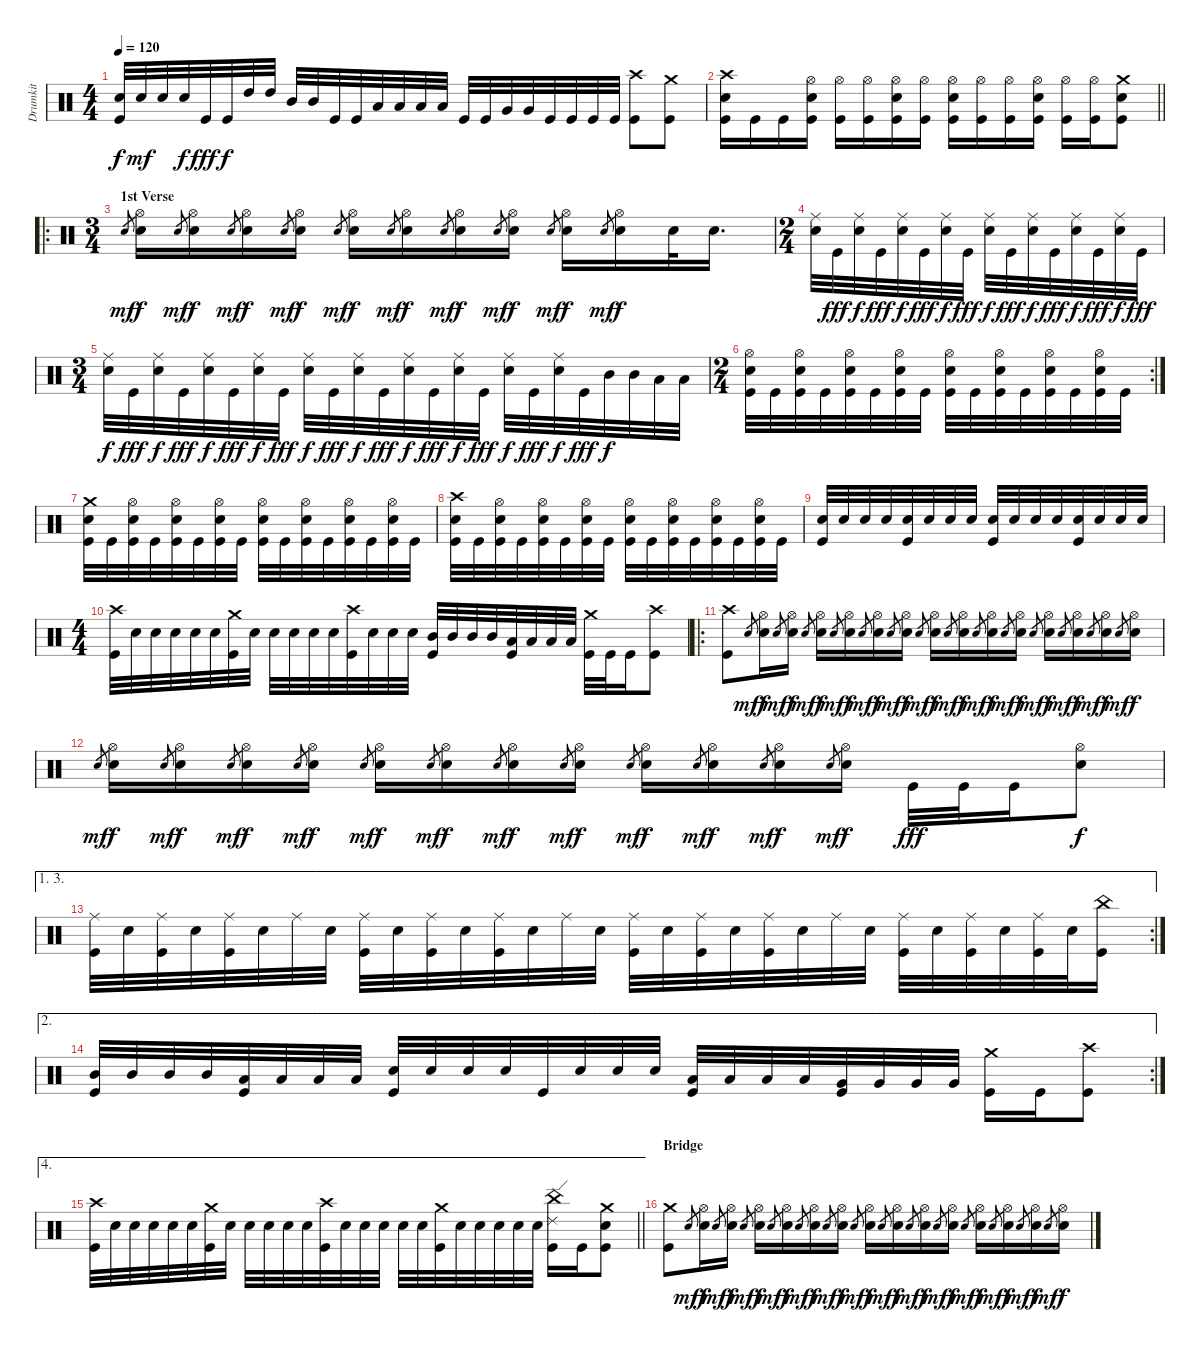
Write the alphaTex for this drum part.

\track ("Drumkit" "Drumkit") {instrument percussion}
\staff {score}
\articulation defaults
\ts (4 4)
\tempo 120
\clef neutral
\ks c
("Snare (hit) 2" "Kick (hit)").32{dy f} "Snare (hit) 2".32{dy mf} "Snare (hit) 2".32 "Snare (hit) 2".32{dy f} "Kick (hit)".32{dy fff} "Kick (hit)".32{dy f} "High Tom (hit)".32 "High Tom (hit)".32 "Mid Tom (hit)".32 "Mid Tom (hit)".32 "Kick (hit)".32 "Kick (hit)".32 "Low Tom (hit)".32 "Low Tom (hit)".32 "Low Tom (hit)".32 "Low Tom (hit)".32 "Kick (hit)".32 "Kick (hit)".32 "Very Low Tom (hit)".32 "Very Low Tom (hit)".32 "Kick (hit)".32 "Kick (hit)".32 "Kick (hit)".32 "Kick (hit)".32 ("Crash high (hit)" "Kick (hit)").8 ("Crash medium (hit)" "Kick (hit)").8 |
\barLineRight lightlight
("Crash high (hit)" "Snare (hit) 2" "Kick (hit)").16 "Kick (hit)".16 "Kick (hit)".16 ("Hi-Hat (open)" "Snare (hit) 2" "Kick (hit)").16 ("Hi-Hat (open)" "Kick (hit)").16 ("Hi-Hat (open)" "Kick (hit)").16 ("Hi-Hat (open)" "Snare (hit) 2" "Kick (hit)").16 ("Hi-Hat (open)" "Kick (hit)").16 ("Hi-Hat (open)" "Snare (hit) 2" "Kick (hit)").16 ("Hi-Hat (open)" "Kick (hit)").16 ("Hi-Hat (open)" "Kick (hit)").16 ("Hi-Hat (open)" "Snare (hit) 2" "Kick (hit)").16 ("Hi-Hat (open)" "Kick (hit)").16 ("Hi-Hat (open)" "Kick (hit)").16 ("Crash medium (hit)" "Snare (hit) 2" "Kick (hit)").8 |
\ro
\ts (3 4)
\section ("" "1st Verse")
"Snare (hit)".8{gr dy mf} ("Hi-Hat (open)" "Snare (hit) 2").16{dy f} "Snare (hit)".8{gr dy mf} ("Hi-Hat (open)" "Snare (hit) 2").16{dy f} "Snare (hit)".8{gr dy mf} ("Hi-Hat (open)" "Snare (hit) 2").16{dy f} "Snare (hit)".8{gr dy mf} ("Hi-Hat (open)" "Snare (hit) 2").16{dy f} "Snare (hit)".8{gr dy mf} ("Hi-Hat (open)" "Snare (hit) 2").16{dy f} "Snare (hit)".8{gr dy mf} ("Hi-Hat (open)" "Snare (hit) 2").16{dy f} "Snare (hit)".8{gr dy mf} ("Hi-Hat (open)" "Snare (hit) 2").16{dy f} "Snare (hit)".8{gr dy mf} ("Hi-Hat (open)" "Snare (hit) 2").16{dy f} "Snare (hit)".8{gr dy mf} ("Hi-Hat (open)" "Snare (hit) 2").16{dy f} "Snare (hit)".8{gr dy mf} ("Hi-Hat (open)" "Snare (hit) 2").16{dy f} "Snare (hit) 2".32 "Snare (hit) 2".16{d} |
\ts (2 4)
("Ride (middle)" "Snare (hit) 2").32 "Kick (hit)".32{dy fff} ("Ride (middle)" "Snare (hit) 2").32{dy f} "Kick (hit)".32{dy fff} ("Ride (middle)" "Snare (hit) 2").32{dy f} "Kick (hit)".32{dy fff} ("Ride (middle)" "Snare (hit) 2").32{dy f} "Kick (hit)".32{dy fff} ("Ride (middle)" "Snare (hit) 2").32{dy f} "Kick (hit)".32{dy fff} ("Ride (middle)" "Snare (hit) 2").32{dy f} "Kick (hit)".32{dy fff} ("Ride (middle)" "Snare (hit) 2").32{dy f} "Kick (hit)".32{dy fff} ("Ride (middle)" "Snare (hit) 2").32{dy f} "Kick (hit)".32{dy fff} |
\ts (3 4)
("Ride (middle)" "Snare (hit) 2").32{dy f} "Kick (hit)".32{dy fff} ("Ride (middle)" "Snare (hit) 2").32{dy f} "Kick (hit)".32{dy fff} ("Ride (middle)" "Snare (hit) 2").32{dy f} "Kick (hit)".32{dy fff} ("Ride (middle)" "Snare (hit) 2").32{dy f} "Kick (hit)".32{dy fff} ("Ride (middle)" "Snare (hit) 2").32{dy f} "Kick (hit)".32{dy fff} ("Ride (middle)" "Snare (hit) 2").32{dy f} "Kick (hit)".32{dy fff} ("Ride (middle)" "Snare (hit) 2").32{dy f} "Kick (hit)".32{dy fff} ("Ride (middle)" "Snare (hit) 2").32{dy f} "Kick (hit)".32{dy fff} ("Ride (middle)" "Snare (hit) 2").32{dy f} "Kick (hit)".32{dy fff} ("Ride (middle)" "Snare (hit) 2").32{dy f} "Kick (hit)".32{dy fff} "Mid Tom (hit)".32{dy f} "Mid Tom (hit)".32 "Low Tom (hit)".32 "Low Tom (hit)".32 |
\rc 2
\ts (2 4)
("Hi-Hat (open)" "Snare (hit) 2" "Kick (hit)").32 "Kick (hit)".32 ("Hi-Hat (open)" "Snare (hit) 2" "Kick (hit)").32 "Kick (hit)".32 ("Hi-Hat (open)" "Snare (hit) 2" "Kick (hit)").32 "Kick (hit)".32 ("Hi-Hat (open)" "Snare (hit) 2" "Kick (hit)").32 "Kick (hit)".32 ("Hi-Hat (open)" "Snare (hit) 2" "Kick (hit)").32 "Kick (hit)".32 ("Hi-Hat (open)" "Snare (hit) 2" "Kick (hit)").32 "Kick (hit)".32 ("Hi-Hat (open)" "Snare (hit) 2" "Kick (hit)").32 "Kick (hit)".32 ("Hi-Hat (open)" "Snare (hit) 2" "Kick (hit)").32 "Kick (hit)".32 |
("Crash medium (hit)" "Snare (hit) 2" "Kick (hit)").32 "Kick (hit)".32 ("Hi-Hat (open)" "Snare (hit) 2" "Kick (hit)").32 "Kick (hit)".32 ("Hi-Hat (open)" "Snare (hit) 2" "Kick (hit)").32 "Kick (hit)".32 ("Hi-Hat (open)" "Snare (hit) 2" "Kick (hit)").32 "Kick (hit)".32 ("Hi-Hat (open)" "Snare (hit) 2" "Kick (hit)").32 "Kick (hit)".32 ("Hi-Hat (open)" "Snare (hit) 2" "Kick (hit)").32 "Kick (hit)".32 ("Hi-Hat (open)" "Snare (hit) 2" "Kick (hit)").32 "Kick (hit)".32 ("Hi-Hat (open)" "Snare (hit) 2" "Kick (hit)").32 "Kick (hit)".32 |
("Crash high (hit)" "Snare (hit) 2" "Kick (hit)").32 "Kick (hit)".32 ("Hi-Hat (open)" "Snare (hit) 2" "Kick (hit)").32 "Kick (hit)".32 ("Hi-Hat (open)" "Snare (hit) 2" "Kick (hit)").32 "Kick (hit)".32 ("Hi-Hat (open)" "Snare (hit) 2" "Kick (hit)").32 "Kick (hit)".32 ("Hi-Hat (open)" "Snare (hit) 2" "Kick (hit)").32 "Kick (hit)".32 ("Hi-Hat (open)" "Snare (hit) 2" "Kick (hit)").32 "Kick (hit)".32 ("Hi-Hat (open)" "Snare (hit) 2" "Kick (hit)").32 "Kick (hit)".32 ("Hi-Hat (open)" "Snare (hit) 2" "Kick (hit)").32 "Kick (hit)".32 |
("Snare (hit) 2" "Kick (hit)").32 "Snare (hit) 2".32 "Snare (hit) 2".32 "Snare (hit) 2".32 ("Snare (hit) 2" "Kick (hit)").32 "Snare (hit) 2".32 "Snare (hit) 2".32 "Snare (hit) 2".32 ("Snare (hit) 2" "Kick (hit)").32 "Snare (hit) 2".32 "Snare (hit) 2".32 "Snare (hit) 2".32 ("Snare (hit) 2" "Kick (hit)").32 "Snare (hit) 2".32 "Snare (hit) 2".32 "Snare (hit) 2".32 |
\ts (4 4)
("Crash high (hit)" "Kick (hit)").32 "Snare (hit) 2".32 "Snare (hit) 2".32 "Snare (hit) 2".32 "Snare (hit) 2".32 "Snare (hit) 2".32 ("Crash medium (hit)" "Kick (hit)").32 "Snare (hit) 2".32 "Snare (hit) 2".32 "Snare (hit) 2".32 "Snare (hit) 2".32 "Snare (hit) 2".32 ("Crash high (hit)" "Kick (hit)").32 "Snare (hit) 2".32 "Snare (hit) 2".32 "Snare (hit) 2".32 ("Mid Tom (hit)" "Kick (hit)").32 "Mid Tom (hit)".32 "Mid Tom (hit)".32 "Mid Tom (hit)".32 ("Low Tom (hit)" "Kick (hit)").32 "Low Tom (hit)".32 "Low Tom (hit)".32 "Low Tom (hit)".32 ("Crash medium (hit)" "Kick (hit)").32 "Kick (hit)".32 "Kick (hit)".16 ("Crash high (hit)" "Kick (hit)").8 |
\ro
("Crash high (hit)" "Kick (hit)").8 "Snare (hit)".8{gr dy mf} ("Hi-Hat (open)" "Snare (hit) 2").16{dy f} "Snare (hit)".8{gr dy mf} ("Hi-Hat (open)" "Snare (hit) 2").16{dy f} "Snare (hit)".8{gr dy mf} ("Hi-Hat (open)" "Snare (hit) 2").16{dy f} "Snare (hit)".8{gr dy mf} ("Hi-Hat (open)" "Snare (hit) 2").16{dy f} "Snare (hit)".8{gr dy mf} ("Hi-Hat (open)" "Snare (hit) 2").16{dy f} "Snare (hit)".8{gr dy mf} ("Hi-Hat (open)" "Snare (hit) 2").16{dy f} "Snare (hit)".8{gr dy mf} ("Hi-Hat (open)" "Snare (hit) 2").16{dy f} "Snare (hit)".8{gr dy mf} ("Hi-Hat (open)" "Snare (hit) 2").16{dy f} "Snare (hit)".8{gr dy mf} ("Hi-Hat (open)" "Snare (hit) 2").16{dy f} "Snare (hit)".8{gr dy mf} ("Hi-Hat (open)" "Snare (hit) 2").16{dy f} "Snare (hit)".8{gr dy mf} ("Hi-Hat (open)" "Snare (hit) 2").16{dy f} "Snare (hit)".8{gr dy mf} ("Hi-Hat (open)" "Snare (hit) 2").16{dy f} "Snare (hit)".8{gr dy mf} ("Hi-Hat (open)" "Snare (hit) 2").16{dy f} "Snare (hit)".8{gr dy mf} ("Hi-Hat (open)" "Snare (hit) 2").16{dy f} |
"Snare (hit)".8{gr dy mf} ("Hi-Hat (open)" "Snare (hit) 2").16{dy f} "Snare (hit)".8{gr dy mf} ("Hi-Hat (open)" "Snare (hit) 2").16{dy f} "Snare (hit)".8{gr dy mf} ("Hi-Hat (open)" "Snare (hit) 2").16{dy f} "Snare (hit)".8{gr dy mf} ("Hi-Hat (open)" "Snare (hit) 2").16{dy f} "Snare (hit)".8{gr dy mf} ("Hi-Hat (open)" "Snare (hit) 2").16{dy f} "Snare (hit)".8{gr dy mf} ("Hi-Hat (open)" "Snare (hit) 2").16{dy f} "Snare (hit)".8{gr dy mf} ("Hi-Hat (open)" "Snare (hit) 2").16{dy f} "Snare (hit)".8{gr dy mf} ("Hi-Hat (open)" "Snare (hit) 2").16{dy f} "Snare (hit)".8{gr dy mf} ("Hi-Hat (open)" "Snare (hit) 2").16{dy f} "Snare (hit)".8{gr dy mf} ("Hi-Hat (open)" "Snare (hit) 2").16{dy f} "Snare (hit)".8{gr dy mf} ("Hi-Hat (open)" "Snare (hit) 2").16{dy f} "Snare (hit)".8{gr dy mf} ("Hi-Hat (open)" "Snare (hit) 2").16{dy f} "Kick (hit)".32{dy fff} "Kick (hit)".32 "Kick (hit)".16 ("Hi-Hat (open)" "Snare (hit) 2").8{dy f} |
\ae (1 3)
\rc 2
("Ride (middle)" "Kick (hit)").32 "Snare (hit) 2".32 ("Ride (middle)" "Kick (hit)").32 "Snare (hit) 2".32 ("Ride (middle)" "Kick (hit)").32 "Snare (hit) 2".32 "Ride (middle)".32 "Snare (hit) 2".32 ("Ride (middle)" "Kick (hit)").32 "Snare (hit) 2".32 ("Ride (middle)" "Kick (hit)").32 "Snare (hit) 2".32 ("Ride (middle)" "Kick (hit)").32 "Snare (hit) 2".32 "Ride (middle)".32 "Snare (hit) 2".32 ("Ride (middle)" "Kick (hit)").32 "Snare (hit) 2".32 ("Ride (middle)" "Kick (hit)").32 "Snare (hit) 2".32 ("Ride (middle)" "Kick (hit)").32 "Snare (hit) 2".32 "Ride (middle)".32 "Snare (hit) 2".32 ("Ride (middle)" "Kick (hit)").32 "Snare (hit) 2".32 ("Ride (middle)" "Kick (hit)").32 "Snare (hit) 2".32 ("Ride (middle)" "Kick (hit)").32 "Snare (hit) 2".32 ("China (hit)" "Kick (hit)").16 |
\ae 2
\rc 2
("Mid Tom (hit)" "Kick (hit)").32 "Mid Tom (hit)".32 "Mid Tom (hit)".32 "Mid Tom (hit)".32 ("Low Tom (hit)" "Kick (hit)").32 "Low Tom (hit)".32 "Low Tom (hit)".32 "Low Tom (hit)".32 ("Snare (hit) 2" "Kick (hit)").32 "Snare (hit) 2".32 "Snare (hit) 2".32 "Snare (hit) 2".32 "Kick (hit)".32 "Snare (hit) 2".32 "Snare (hit) 2".32 "Snare (hit) 2".32 ("Low Tom (hit)" "Kick (hit)").32 "Low Tom (hit)".32 "Low Tom (hit)".32 "Low Tom (hit)".32 ("Very Low Tom (hit)" "Kick (hit)").32 "Very Low Tom (hit)".32 "Very Low Tom (hit)".32 "Very Low Tom (hit)".32 ("Crash medium (hit)" "Kick (hit)").16 "Kick (hit)".16 ("Crash high (hit)" "Kick (hit)").8 |
\ae 4
\barLineRight lightlight
("Crash high (hit)" "Kick (hit)").32 "Snare (hit) 2".32 "Snare (hit) 2".32 "Snare (hit) 2".32 "Snare (hit) 2".32 "Snare (hit) 2".32 ("Crash medium (hit)" "Kick (hit)").32 "Snare (hit) 2".32 "Snare (hit) 2".32 "Snare (hit) 2".32 "Snare (hit) 2".32 "Snare (hit) 2".32 ("Crash high (hit)" "Kick (hit)").32 "Snare (hit) 2".32 "Snare (hit) 2".32 "Snare (hit) 2".32 "Snare (hit) 2".32 "Snare (hit) 2".32 ("Crash medium (hit)" "Kick (hit)").32 "Snare (hit) 2".32 "Snare (hit) 2".32 "Snare (hit) 2".32 "Snare (hit) 2".32 "Snare (hit) 2".32 ("China (hit)" "Ride (edge) 2" "Kick (hit)").16 "Kick (hit)".16 ("Crash medium (hit)" "Snare (hit) 2" "Kick (hit)").8 |
\section ("" "Bridge")
("Crash medium (hit)" "Kick (hit)").8 "Snare (hit)".8{gr dy mf} ("Hi-Hat (open)" "Snare (hit) 2").16{dy f} "Snare (hit)".8{gr dy mf} ("Hi-Hat (open)" "Snare (hit) 2").16{dy f} "Snare (hit)".8{gr dy mf} ("Hi-Hat (open)" "Snare (hit) 2").16{dy f} "Snare (hit)".8{gr dy mf} ("Hi-Hat (open)" "Snare (hit) 2").16{dy f} "Snare (hit)".8{gr dy mf} ("Hi-Hat (open)" "Snare (hit) 2").16{dy f} "Snare (hit)".8{gr dy mf} ("Hi-Hat (open)" "Snare (hit) 2").16{dy f} "Snare (hit)".8{gr dy mf} ("Hi-Hat (open)" "Snare (hit) 2").16{dy f} "Snare (hit)".8{gr dy mf} ("Hi-Hat (open)" "Snare (hit) 2").16{dy f} "Snare (hit)".8{gr dy mf} ("Hi-Hat (open)" "Snare (hit) 2").16{dy f} "Snare (hit)".8{gr dy mf} ("Hi-Hat (open)" "Snare (hit) 2").16{dy f} "Snare (hit)".8{gr dy mf} ("Hi-Hat (open)" "Snare (hit) 2").16{dy f} "Snare (hit)".8{gr dy mf} ("Hi-Hat (open)" "Snare (hit) 2").16{dy f} "Snare (hit)".8{gr dy mf} ("Hi-Hat (open)" "Snare (hit) 2").16{dy f} "Snare (hit)".8{gr dy mf} ("Hi-Hat (open)" "Snare (hit) 2").16{dy f}
